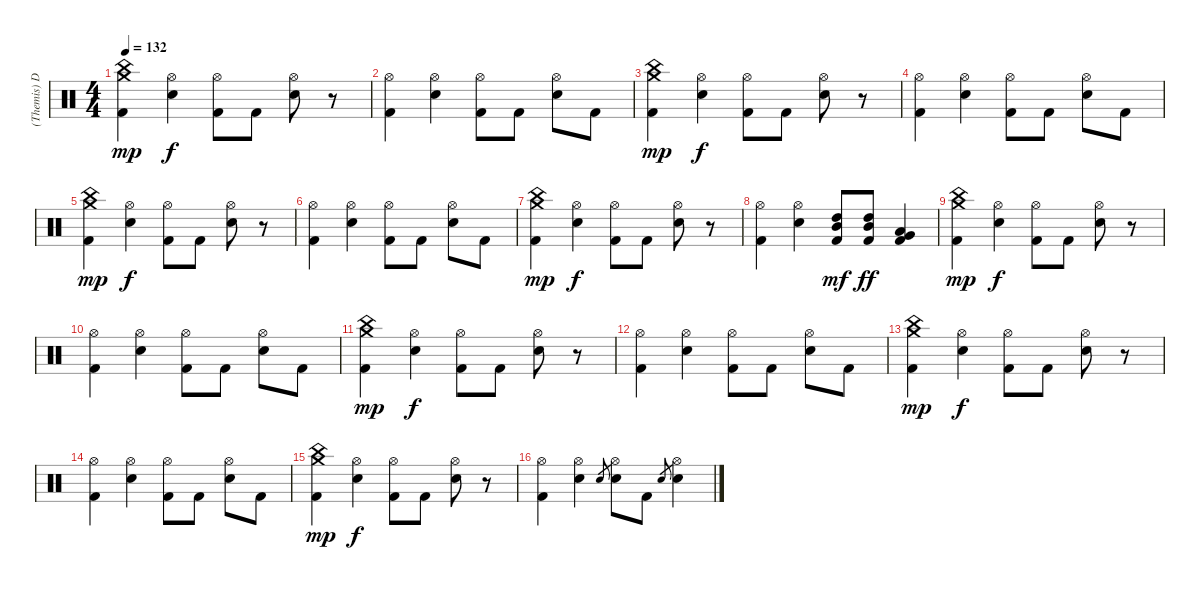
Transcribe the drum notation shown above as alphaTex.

\track ("(Themis) Drums" "(Themis) D") {instrument percussion}
\staff {score}
\articulation defaults
\ts (4 4)
\tempo 132
\clef neutral
\ks c
("Crash medium (hit)" "China (hit)" "Kick (hit) 2").4{dy mp} ("Hi-Hat (open)" "Electric Snare (hit)").4{dy f} ("Hi-Hat (open)" "Kick (hit) 2").8 "Kick (hit) 2".8 ("Hi-Hat (open)" "Electric Snare (hit)").8 r.8 |
("Hi-Hat (open)" "Kick (hit) 2").4 ("Hi-Hat (open)" "Electric Snare (hit)").4 ("Hi-Hat (open)" "Kick (hit) 2").8 "Kick (hit) 2".8 ("Hi-Hat (open)" "Electric Snare (hit)").8 "Kick (hit) 2".8 |
("Crash medium (hit)" "China (hit)" "Kick (hit) 2").4{dy mp} ("Hi-Hat (open)" "Electric Snare (hit)").4{dy f} ("Hi-Hat (open)" "Kick (hit) 2").8 "Kick (hit) 2".8 ("Hi-Hat (open)" "Electric Snare (hit)").8 r.8 |
("Hi-Hat (open)" "Kick (hit) 2").4 ("Hi-Hat (open)" "Electric Snare (hit)").4 ("Hi-Hat (open)" "Kick (hit) 2").8 "Kick (hit) 2".8 ("Hi-Hat (open)" "Electric Snare (hit)").8 "Kick (hit) 2".8 |
("Crash medium (hit)" "China (hit)" "Kick (hit) 2").4{dy mp} ("Hi-Hat (open)" "Electric Snare (hit)").4{dy f} ("Hi-Hat (open)" "Kick (hit) 2").8 "Kick (hit) 2".8 ("Hi-Hat (open)" "Electric Snare (hit)").8 r.8 |
("Hi-Hat (open)" "Kick (hit) 2").4 ("Hi-Hat (open)" "Electric Snare (hit)").4 ("Hi-Hat (open)" "Kick (hit) 2").8 "Kick (hit) 2".8 ("Hi-Hat (open)" "Electric Snare (hit)").8 "Kick (hit) 2".8 |
("Crash medium (hit)" "China (hit)" "Kick (hit) 2").4{dy mp} ("Hi-Hat (open)" "Electric Snare (hit)").4{dy f} ("Hi-Hat (open)" "Kick (hit) 2").8 "Kick (hit) 2".8 ("Hi-Hat (open)" "Electric Snare (hit)").8 r.8 |
("Hi-Hat (open)" "Kick (hit) 2").4 ("Hi-Hat (open)" "Electric Snare (hit)").4 ("High Tom (hit)" "Mid Tom (hit)" "Kick (hit) 2").8{dy mf} ("Mid Tom (hit)" "High Tom (hit)" "Kick (hit) 2").8{dy ff} ("Very Low Tom (hit)" "Low Tom (hit)" "Kick (hit) 2").4 |
("Crash medium (hit)" "China (hit)" "Kick (hit) 2").4{dy mp} ("Hi-Hat (open)" "Electric Snare (hit)").4{dy f} ("Hi-Hat (open)" "Kick (hit) 2").8 "Kick (hit) 2".8 ("Hi-Hat (open)" "Electric Snare (hit)").8 r.8 |
("Hi-Hat (open)" "Kick (hit) 2").4 ("Hi-Hat (open)" "Electric Snare (hit)").4 ("Hi-Hat (open)" "Kick (hit) 2").8 "Kick (hit) 2".8 ("Hi-Hat (open)" "Electric Snare (hit)").8 "Kick (hit) 2".8 |
("Crash medium (hit)" "China (hit)" "Kick (hit) 2").4{dy mp} ("Hi-Hat (open)" "Electric Snare (hit)").4{dy f} ("Hi-Hat (open)" "Kick (hit) 2").8 "Kick (hit) 2".8 ("Hi-Hat (open)" "Electric Snare (hit)").8 r.8 |
("Hi-Hat (open)" "Kick (hit) 2").4 ("Hi-Hat (open)" "Electric Snare (hit)").4 ("Hi-Hat (open)" "Kick (hit) 2").8 "Kick (hit) 2".8 ("Hi-Hat (open)" "Electric Snare (hit)").8 "Kick (hit) 2".8 |
("Crash medium (hit)" "China (hit)" "Kick (hit) 2").4{dy mp} ("Hi-Hat (open)" "Electric Snare (hit)").4{dy f} ("Hi-Hat (open)" "Kick (hit) 2").8 "Kick (hit) 2".8 ("Hi-Hat (open)" "Electric Snare (hit)").8 r.8 |
("Hi-Hat (open)" "Kick (hit) 2").4 ("Hi-Hat (open)" "Electric Snare (hit)").4 ("Hi-Hat (open)" "Kick (hit) 2").8 "Kick (hit) 2".8 ("Hi-Hat (open)" "Electric Snare (hit)").8 "Kick (hit) 2".8 |
("Crash medium (hit)" "China (hit)" "Kick (hit) 2").4{dy mp} ("Hi-Hat (open)" "Electric Snare (hit)").4{dy f} ("Hi-Hat (open)" "Kick (hit) 2").8 "Kick (hit) 2".8 ("Hi-Hat (open)" "Electric Snare (hit)").8 r.8 |
("Hi-Hat (open)" "Kick (hit) 2").4 ("Hi-Hat (open)" "Electric Snare (hit)").4 "Electric Snare (hit)".8{gr} ("Hi-Hat (open)" "Electric Snare (hit)").8 "Kick (hit) 2".8 "Electric Snare (hit)".8{gr} ("Hi-Hat (open)" "Electric Snare (hit)").4
